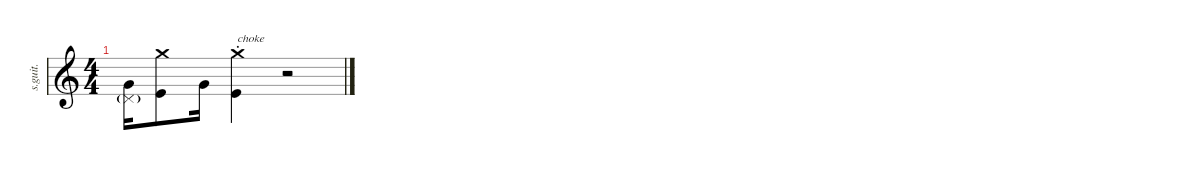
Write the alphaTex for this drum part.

\defaultSystemsLayout 4
\hideDynamics
\bracketExtendMode nobrackets
\track ("Matt Helders" "s.guit.") {instrument percussion}
\staff {score}
\articulation defaults
\ts (4 4)
\tempo (97 hide)
\clef g2
\ks c
("Very Low Tom (hit)" "Pedal Hi-Hat (hit)"{g}).16{lyrics (0 "") lyrics (1 "") lyrics (2 "") lyrics (3 "") lyrics (4 "") dy f} ("Crash medium (hit)" "Kick (hit)").8{lyrics (0 "") lyrics (1 "") lyrics (2 "") lyrics (3 "") lyrics (4 "")} "Very Low Tom (hit)".16{lyrics (0 "") lyrics (1 "") lyrics (2 "") lyrics (3 "") lyrics (4 "")} ("Crash medium (choke)" "Kick (hit)").4{txt "choke" lyrics (0 "") lyrics (1 "") lyrics (2 "") lyrics (3 "") lyrics (4 "")} r.2
